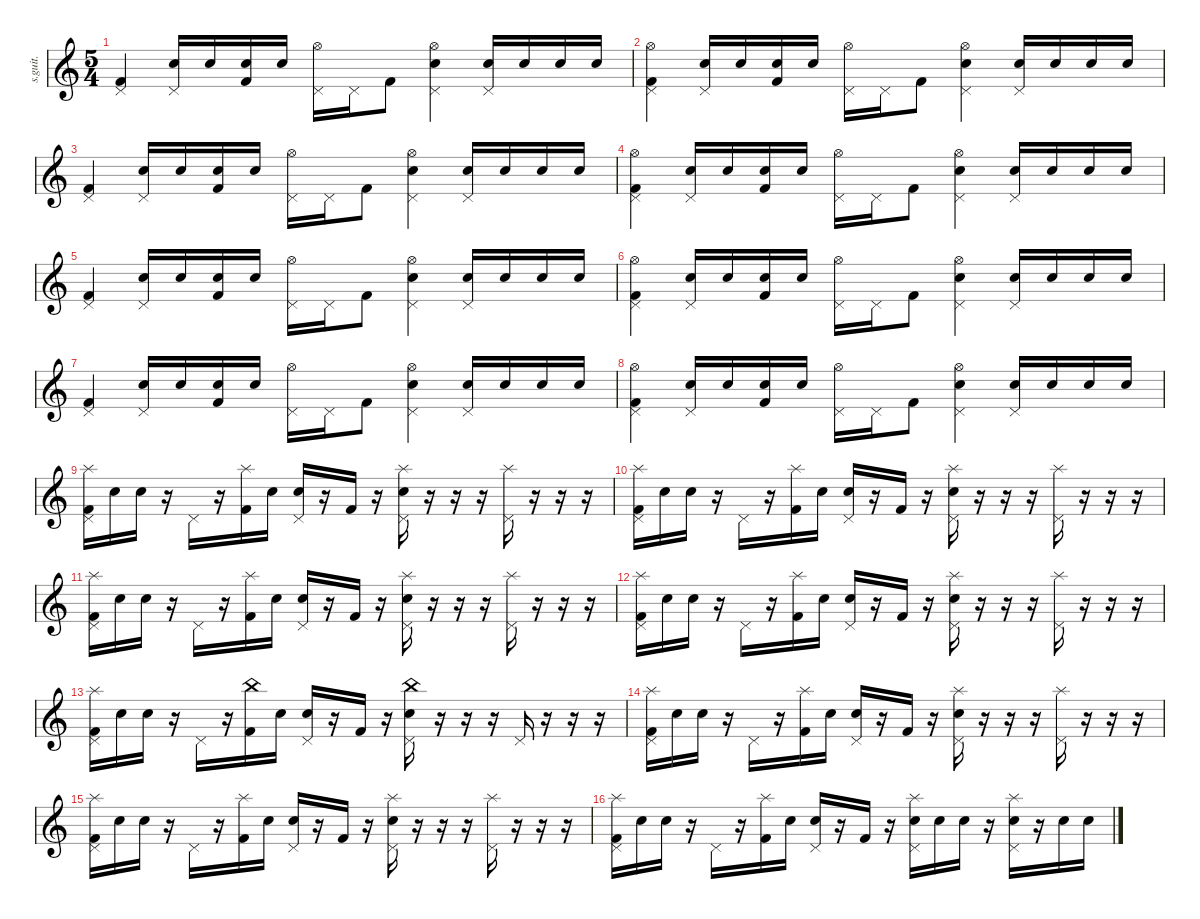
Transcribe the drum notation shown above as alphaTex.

\defaultSystemsLayout 4
\hideDynamics
\bracketExtendMode nobrackets
\track ("Pete Riley" "s.guit.") {instrument percussion}
\staff {score}
\articulation defaults
\ts (5 4)
\tempo (152 hide)
\clef g2
\ks c
("Pedal Hi-Hat (hit)" "Kick (hit) 2").4{dy f} ("Pedal Hi-Hat (hit)" "Snare (hit) 2").16 "Snare (hit) 2".16{dy p} ("Snare (hit) 2" "Kick (hit) 2").16{dy pp} "Snare (hit) 2".16{dy p} ("Pedal Hi-Hat (hit)" "Hi-Hat (open)").16{dy f} "Pedal Hi-Hat (hit)".16{dy pp} "Kick (hit) 2".8{dy f} ("Pedal Hi-Hat (hit)" "Hi-Hat (open)" "Snare (hit) 2").4 ("Pedal Hi-Hat (hit)" "Snare (hit) 2").16 "Snare (hit) 2".16{dy p} "Snare (hit) 2".16{dy pp} "Snare (hit) 2".16{dy p} |
("Pedal Hi-Hat (hit)" "Hi-Hat (open)" "Kick (hit) 2").4{dy f} ("Pedal Hi-Hat (hit)" "Snare (hit) 2").16 "Snare (hit) 2".16{dy p} ("Snare (hit) 2" "Kick (hit) 2").16{dy pp} "Snare (hit) 2".16{dy p} ("Pedal Hi-Hat (hit)" "Hi-Hat (open)").16{dy f} "Pedal Hi-Hat (hit)".16{dy pp} "Kick (hit) 2".8{dy f} ("Pedal Hi-Hat (hit)" "Hi-Hat (open)" "Snare (hit) 2").4 ("Pedal Hi-Hat (hit)" "Snare (hit) 2").16 "Snare (hit) 2".16{dy p} "Snare (hit) 2".16{dy pp} "Snare (hit) 2".16{dy p} |
("Pedal Hi-Hat (hit)" "Kick (hit) 2").4{dy f} ("Pedal Hi-Hat (hit)" "Snare (hit) 2").16 "Snare (hit) 2".16{dy p} ("Snare (hit) 2" "Kick (hit) 2").16{dy pp} "Snare (hit) 2".16{dy p} ("Pedal Hi-Hat (hit)" "Hi-Hat (open)").16{dy f} "Pedal Hi-Hat (hit)".16{dy pp} "Kick (hit) 2".8{dy f} ("Pedal Hi-Hat (hit)" "Hi-Hat (open)" "Snare (hit) 2").4 ("Pedal Hi-Hat (hit)" "Snare (hit) 2").16 "Snare (hit) 2".16{dy p} "Snare (hit) 2".16{dy pp} "Snare (hit) 2".16{dy p} |
("Pedal Hi-Hat (hit)" "Hi-Hat (open)" "Kick (hit) 2").4{dy f} ("Pedal Hi-Hat (hit)" "Snare (hit) 2").16 "Snare (hit) 2".16{dy p} ("Snare (hit) 2" "Kick (hit) 2").16{dy pp} "Snare (hit) 2".16{dy p} ("Pedal Hi-Hat (hit)" "Hi-Hat (open)").16{dy f} "Pedal Hi-Hat (hit)".16{dy pp} "Kick (hit) 2".8{dy f} ("Pedal Hi-Hat (hit)" "Hi-Hat (open)" "Snare (hit) 2").4 ("Pedal Hi-Hat (hit)" "Snare (hit) 2").16 "Snare (hit) 2".16{dy p} "Snare (hit) 2".16{dy pp} "Snare (hit) 2".16{dy p} |
("Pedal Hi-Hat (hit)" "Kick (hit) 2").4{dy f} ("Pedal Hi-Hat (hit)" "Snare (hit) 2").16 "Snare (hit) 2".16{dy p} ("Snare (hit) 2" "Kick (hit) 2").16{dy pp} "Snare (hit) 2".16{dy p} ("Pedal Hi-Hat (hit)" "Hi-Hat (open)").16{dy f} "Pedal Hi-Hat (hit)".16{dy pp} "Kick (hit) 2".8{dy f} ("Pedal Hi-Hat (hit)" "Hi-Hat (open)" "Snare (hit) 2").4 ("Pedal Hi-Hat (hit)" "Snare (hit) 2").16 "Snare (hit) 2".16{dy p} "Snare (hit) 2".16{dy pp} "Snare (hit) 2".16{dy p} |
("Pedal Hi-Hat (hit)" "Hi-Hat (open)" "Kick (hit) 2").4{dy f} ("Pedal Hi-Hat (hit)" "Snare (hit) 2").16 "Snare (hit) 2".16{dy p} ("Snare (hit) 2" "Kick (hit) 2").16{dy pp} "Snare (hit) 2".16{dy p} ("Pedal Hi-Hat (hit)" "Hi-Hat (open)").16{dy f} "Pedal Hi-Hat (hit)".16{dy pp} "Kick (hit) 2".8{dy f} ("Pedal Hi-Hat (hit)" "Hi-Hat (open)" "Snare (hit) 2").4 ("Pedal Hi-Hat (hit)" "Snare (hit) 2").16 "Snare (hit) 2".16{dy p} "Snare (hit) 2".16{dy pp} "Snare (hit) 2".16{dy p} |
("Pedal Hi-Hat (hit)" "Kick (hit) 2").4{dy f} ("Pedal Hi-Hat (hit)" "Snare (hit) 2").16 "Snare (hit) 2".16{dy p} ("Snare (hit) 2" "Kick (hit) 2").16{dy pp} "Snare (hit) 2".16{dy p} ("Pedal Hi-Hat (hit)" "Hi-Hat (open)").16{dy f} "Pedal Hi-Hat (hit)".16{dy pp} "Kick (hit) 2".8{dy f} ("Pedal Hi-Hat (hit)" "Hi-Hat (open)" "Snare (hit) 2").4 ("Pedal Hi-Hat (hit)" "Snare (hit) 2").16 "Snare (hit) 2".16{dy p} "Snare (hit) 2".16{dy pp} "Snare (hit) 2".16{dy p} |
("Pedal Hi-Hat (hit)" "Hi-Hat (open)" "Kick (hit) 2").4{dy f} ("Pedal Hi-Hat (hit)" "Snare (hit) 2").16 "Snare (hit) 2".16{dy p} ("Snare (hit) 2" "Kick (hit) 2").16{dy pp} "Snare (hit) 2".16{dy p} ("Pedal Hi-Hat (hit)" "Hi-Hat (open)").16{dy f} "Pedal Hi-Hat (hit)".16{dy pp} "Kick (hit) 2".8{dy f} ("Pedal Hi-Hat (hit)" "Hi-Hat (open)" "Snare (hit) 2").4 ("Pedal Hi-Hat (hit)" "Snare (hit) 2").16 "Snare (hit) 2".16{dy p} "Snare (hit) 2".16{dy pp} "Snare (hit) 2".16{dy p} |
("Splash (hit)" "Pedal Hi-Hat (hit)" "Kick (hit) 2").16{dy f} "Snare (hit) 2".16{dy mp} "Snare (hit) 2".16{dy p} r.16 "Pedal Hi-Hat (hit)".16{dy mp} r.16 ("Splash (hit)" "Kick (hit) 2").16{dy f} "Snare (hit) 2".16{dy mp} ("Pedal Hi-Hat (hit)" "Snare (hit) 2").16 r.16 "Kick (hit) 2".16{dy mf} r.16 ("Splash (hit)" "Pedal Hi-Hat (hit)" "Snare (hit) 2").16{dy f} r.16 r.16 r.16 ("Splash (hit)" "Pedal Hi-Hat (hit)").16 r.16 r.16 r.16 |
("Splash (hit)" "Pedal Hi-Hat (hit)" "Kick (hit) 2").16 "Snare (hit) 2".16{dy mp} "Snare (hit) 2".16{dy p} r.16 "Pedal Hi-Hat (hit)".16{dy mp} r.16 ("Splash (hit)" "Kick (hit) 2").16{dy f} "Snare (hit) 2".16{dy mp} ("Pedal Hi-Hat (hit)" "Snare (hit) 2").16 r.16 "Kick (hit) 2".16{dy mf} r.16 ("Splash (hit)" "Pedal Hi-Hat (hit)" "Snare (hit) 2").16{dy f} r.16 r.16 r.16 ("Splash (hit)" "Pedal Hi-Hat (hit)").16 r.16 r.16 r.16 |
("Splash (hit)" "Pedal Hi-Hat (hit)" "Kick (hit) 2").16 "Snare (hit) 2".16{dy mp} "Snare (hit) 2".16{dy p} r.16 "Pedal Hi-Hat (hit)".16{dy mp} r.16 ("Splash (hit)" "Kick (hit) 2").16{dy f} "Snare (hit) 2".16{dy mp} ("Pedal Hi-Hat (hit)" "Snare (hit) 2").16 r.16 "Kick (hit) 2".16{dy mf} r.16 ("Splash (hit)" "Pedal Hi-Hat (hit)" "Snare (hit) 2").16{dy f} r.16 r.16 r.16 ("Splash (hit)" "Pedal Hi-Hat (hit)").16 r.16 r.16 r.16 |
("Splash (hit)" "Pedal Hi-Hat (hit)" "Kick (hit) 2").16 "Snare (hit) 2".16{dy mp} "Snare (hit) 2".16{dy p} r.16 "Pedal Hi-Hat (hit)".16{dy mp} r.16 ("Splash (hit)" "Kick (hit) 2").16{dy f} "Snare (hit) 2".16{dy mp} ("Pedal Hi-Hat (hit)" "Snare (hit) 2").16 r.16 "Kick (hit) 2".16{dy mf} r.16 ("Splash (hit)" "Pedal Hi-Hat (hit)" "Snare (hit) 2").16{dy f} r.16 r.16 r.16 ("Splash (hit)" "Pedal Hi-Hat (hit)").16 r.16 r.16 r.16 |
("Splash (hit)" "Pedal Hi-Hat (hit)" "Kick (hit) 2").16{dy mp} "Snare (hit) 2".16 "Snare (hit) 2".16{dy p} r.16 "Pedal Hi-Hat (hit)".16{dy mp} r.16 ("China (hit)" "Kick (hit) 2").16{dy ff} "Snare (hit) 2".16{dy mp} ("Pedal Hi-Hat (hit)" "Snare (hit) 2").16 r.16 "Kick (hit) 2".16{dy mf} r.16 ("China (hit)" "Pedal Hi-Hat (hit)" "Snare (hit) 2").16{dy f} r.16 r.16 r.16 "Pedal Hi-Hat (hit)".16{dy mp} r.16 r.16 r.16 |
("Splash (hit)" "Pedal Hi-Hat (hit)" "Kick (hit) 2").16{dy f} "Snare (hit) 2".16{dy mp} "Snare (hit) 2".16{dy p} r.16 "Pedal Hi-Hat (hit)".16{dy mp} r.16 ("Splash (hit)" "Kick (hit) 2").16{dy f} "Snare (hit) 2".16{dy mp} ("Pedal Hi-Hat (hit)" "Snare (hit) 2").16 r.16 "Kick (hit) 2".16{dy mf} r.16 ("Splash (hit)" "Pedal Hi-Hat (hit)" "Snare (hit) 2").16{dy f} r.16 r.16 r.16 ("Splash (hit)" "Pedal Hi-Hat (hit)").16 r.16 r.16 r.16 |
("Splash (hit)" "Pedal Hi-Hat (hit)" "Kick (hit) 2").16 "Snare (hit) 2".16{dy mp} "Snare (hit) 2".16{dy p} r.16 "Pedal Hi-Hat (hit)".16{dy mp} r.16 ("Splash (hit)" "Kick (hit) 2").16{dy f} "Snare (hit) 2".16{dy mp} ("Pedal Hi-Hat (hit)" "Snare (hit) 2").16 r.16 "Kick (hit) 2".16{dy mf} r.16 ("Splash (hit)" "Pedal Hi-Hat (hit)" "Snare (hit) 2").16{dy f} r.16 r.16 r.16 ("Splash (hit)" "Pedal Hi-Hat (hit)").16 r.16 r.16 r.16 |
("Splash (hit)" "Pedal Hi-Hat (hit)" "Kick (hit) 2").16 "Snare (hit) 2".16{dy mp} "Snare (hit) 2".16{dy p} r.16 "Pedal Hi-Hat (hit)".16{dy mp} r.16 ("Splash (hit)" "Kick (hit) 2").16{dy f} "Snare (hit) 2".16{dy mp} ("Pedal Hi-Hat (hit)" "Snare (hit) 2").16 r.16 "Kick (hit) 2".16{dy mf} r.16 ("Splash (hit)" "Pedal Hi-Hat (hit)" "Snare (hit) 2").16{dy f} "Snare (hit) 2".16 "Snare (hit) 2".16{dy mf} r.16 ("Splash (hit)" "Pedal Hi-Hat (hit)" "Snare (hit) 2").16{dy f} r.16 "Snare (hit) 2".16{dy mf} "Snare (hit) 2".16{dy ff}
